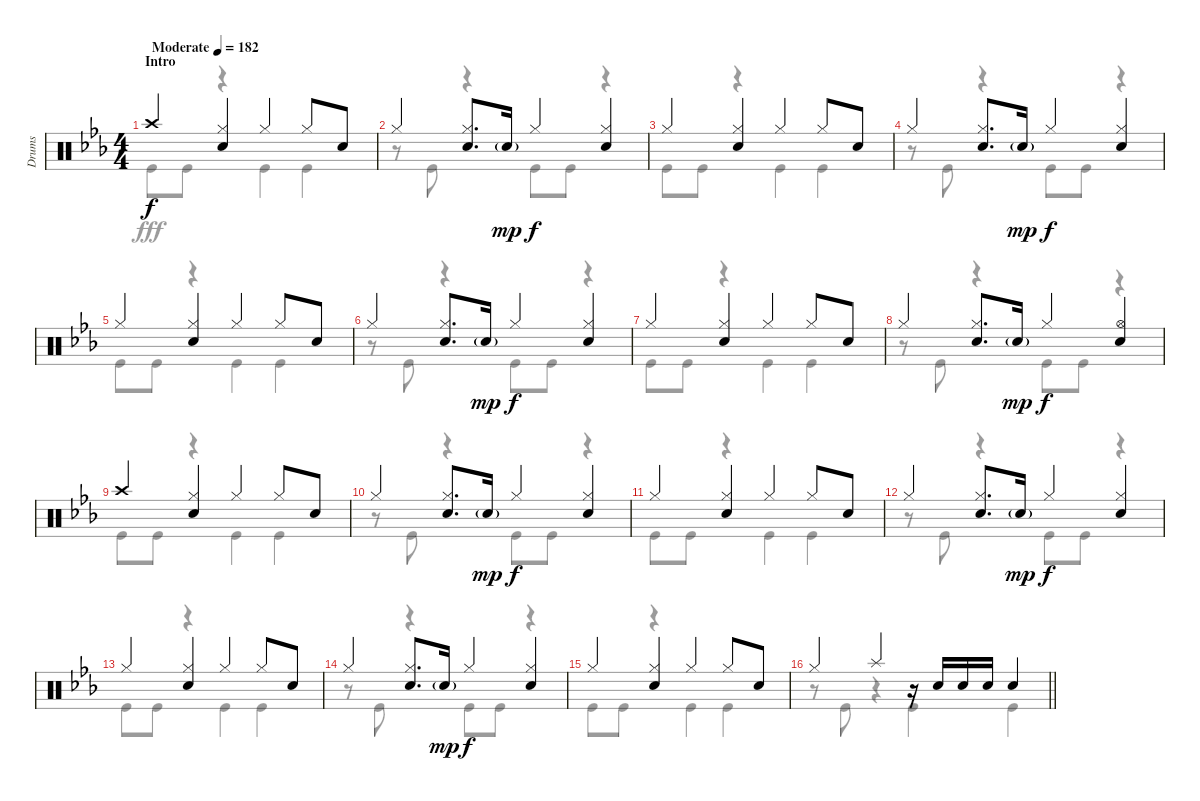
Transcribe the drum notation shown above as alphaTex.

\track ("Drums" "Drums") {instrument percussion}
\staff {score}
\articulation defaults
\voice
\ts (4 4)
\section ("" "Intro")
\tempo (182 "Moderate")
\clef neutral
\ks eb "Crash high (hit)".4{dy f}
("Hi-Hat (closed)" "Snare (hit) 2").4 "Hi-Hat (closed)".4 "Hi-Hat (closed)".8 "Snare (hit) 2".8 |
"Hi-Hat (closed)".4 ("Hi-Hat (closed)" "Snare (hit) 2").8{d} "Snare (hit) 2"{g}.16{dy mp} "Hi-Hat (closed)".4{dy f} ("Hi-Hat (closed)" "Snare (hit) 2").4 |
"Hi-Hat (closed)".4 ("Hi-Hat (closed)" "Snare (hit) 2").4 "Hi-Hat (closed)".4 "Hi-Hat (closed)".8 "Snare (hit) 2".8 |
"Hi-Hat (closed)".4 ("Hi-Hat (closed)" "Snare (hit) 2").8{d} "Snare (hit) 2"{g}.16{dy mp} "Hi-Hat (closed)".4{dy f} ("Hi-Hat (closed)" "Snare (hit) 2").4 |
"Hi-Hat (closed)".4 ("Hi-Hat (closed)" "Snare (hit) 2").4 "Hi-Hat (closed)".4 "Hi-Hat (closed)".8 "Snare (hit) 2".8 |
"Hi-Hat (closed)".4 ("Hi-Hat (closed)" "Snare (hit) 2").8{d} "Snare (hit) 2"{g}.16{dy mp} "Hi-Hat (closed)".4{dy f} ("Hi-Hat (closed)" "Snare (hit) 2").4 |
"Hi-Hat (closed)".4 ("Hi-Hat (closed)" "Snare (hit) 2").4 "Hi-Hat (closed)".4 "Hi-Hat (closed)".8 "Snare (hit) 2".8 |
"Hi-Hat (closed)".4 ("Hi-Hat (closed)" "Snare (hit) 2").8{d} "Snare (hit) 2"{g}.16{dy mp} "Hi-Hat (closed)".4{dy f} ("Hi-Hat (open)" "Snare (hit) 2").4 |
"Crash high (hit)".4 ("Hi-Hat (closed)" "Snare (hit) 2").4 "Hi-Hat (closed)".4 "Hi-Hat (closed)".8 "Snare (hit) 2".8 |
"Hi-Hat (closed)".4 ("Hi-Hat (closed)" "Snare (hit) 2").8{d} "Snare (hit) 2"{g}.16{dy mp} "Hi-Hat (closed)".4{dy f} ("Hi-Hat (closed)" "Snare (hit) 2").4 |
"Hi-Hat (closed)".4 ("Hi-Hat (closed)" "Snare (hit) 2").4 "Hi-Hat (closed)".4 "Hi-Hat (closed)".8 "Snare (hit) 2".8 |
"Hi-Hat (closed)".4 ("Hi-Hat (closed)" "Snare (hit) 2").8{d} "Snare (hit) 2"{g}.16{dy mp} "Hi-Hat (closed)".4{dy f} ("Hi-Hat (closed)" "Snare (hit) 2").4 |
"Hi-Hat (closed)".4 ("Hi-Hat (closed)" "Snare (hit) 2").4 "Hi-Hat (closed)".4 "Hi-Hat (closed)".8 "Snare (hit) 2".8 |
"Hi-Hat (closed)".4 ("Hi-Hat (closed)" "Snare (hit) 2").8{d} "Snare (hit) 2"{g}.16{dy mp} "Hi-Hat (closed)".4{dy f} ("Hi-Hat (closed)" "Snare (hit) 2").4 |
"Hi-Hat (closed)".4 ("Hi-Hat (closed)" "Snare (hit) 2").4 "Hi-Hat (closed)".4 "Hi-Hat (closed)".8 "Snare (hit) 2".8 |
\barLineRight lightlight "Hi-Hat (closed)".4 "Splash (hit)".4
r.16 "Snare (hit) 2".16 "Snare (hit) 2".16 "Snare (hit) 2".16 "Snare (hit) 2".4
\voice
\clef neutral
\ottava regular
\simile none
\ks eb "Kick (hit)".8{dy fff} "Kick (hit)".8
r.4 "Kick (hit)".4 "Kick (hit)".4 |
r.8 "Kick (hit)".8 r.4 "Kick (hit)".8 "Kick (hit)".8 r.4 |
"Kick (hit)".8 "Kick (hit)".8 r.4 "Kick (hit)".4 "Kick (hit)".4 |
r.8 "Kick (hit)".8 r.4 "Kick (hit)".8 "Kick (hit)".8 r.4 |
"Kick (hit)".8 "Kick (hit)".8 r.4 "Kick (hit)".4 "Kick (hit)".4 |
r.8 "Kick (hit)".8 r.4 "Kick (hit)".8 "Kick (hit)".8 r.4 |
"Kick (hit)".8 "Kick (hit)".8 r.4 "Kick (hit)".4 "Kick (hit)".4 |
r.8 "Kick (hit)".8 r.4 "Kick (hit)".8 "Kick (hit)".8 r.4 |
"Kick (hit)".8 "Kick (hit)".8 r.4 "Kick (hit)".4 "Kick (hit)".4 |
r.8 "Kick (hit)".8 r.4 "Kick (hit)".8 "Kick (hit)".8 r.4 |
"Kick (hit)".8 "Kick (hit)".8 r.4 "Kick (hit)".4 "Kick (hit)".4 |
r.8 "Kick (hit)".8 r.4 "Kick (hit)".8 "Kick (hit)".8 r.4 |
"Kick (hit)".8 "Kick (hit)".8 r.4 "Kick (hit)".4 "Kick (hit)".4 |
r.8 "Kick (hit)".8 r.4 "Kick (hit)".8 "Kick (hit)".8 r.4 |
"Kick (hit)".8 "Kick (hit)".8 r.4 "Kick (hit)".4 "Kick (hit)".4 |
\barLineRight lightlight
r.8 "Kick (hit)".8 r.4 "Kick (hit)".4 "Kick (hit)".4
